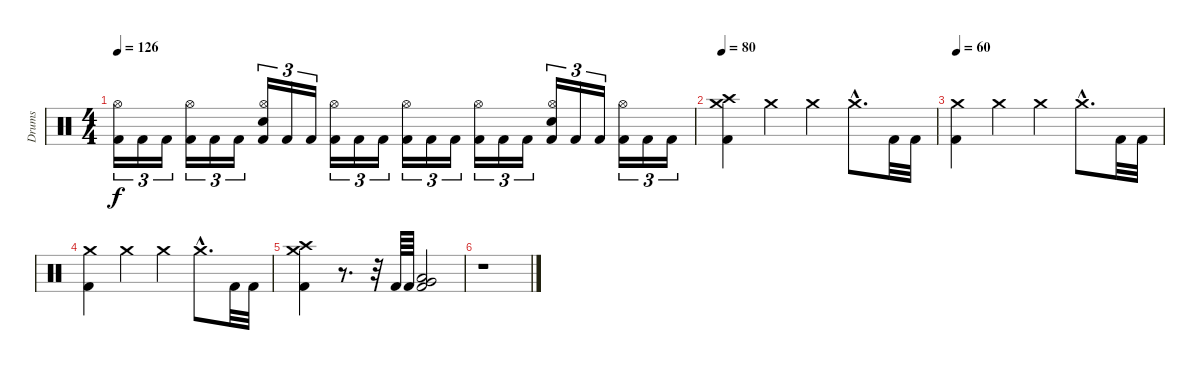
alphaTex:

\track ("Drums" "Drums") {instrument percussion}
\staff {score}
\articulation defaults
\ts (4 4)
\tempo 126
\clef neutral
\ks c
("Kick (hit) 2" "Hi-Hat (open)").16{tu (3 2) dy f} "Kick (hit) 2".16{tu (3 2)} "Kick (hit) 2".16{tu (3 2)} ("Kick (hit) 2" "Hi-Hat (open)").16{tu (3 2)} "Kick (hit) 2".16{tu (3 2)} "Kick (hit) 2".16{tu (3 2)} ("Kick (hit) 2" "Electric Snare (hit)" "Hi-Hat (open)").16{tu (3 2)} "Kick (hit) 2".16{tu (3 2)} "Kick (hit) 2".16{tu (3 2)} ("Kick (hit) 2" "Hi-Hat (open)").16{tu (3 2)} "Kick (hit) 2".16{tu (3 2)} "Kick (hit) 2".16{tu (3 2)} ("Kick (hit) 2" "Hi-Hat (open)").16{tu (3 2)} "Kick (hit) 2".16{tu (3 2)} "Kick (hit) 2".16{tu (3 2)} ("Kick (hit) 2" "Hi-Hat (open)").16{tu (3 2)} "Kick (hit) 2".16{tu (3 2)} "Kick (hit) 2".16{tu (3 2)} ("Kick (hit) 2" "Electric Snare (hit)" "Hi-Hat (open)").16{tu (3 2)} "Kick (hit) 2".16{tu (3 2)} "Kick (hit) 2".16{tu (3 2)} ("Kick (hit) 2" "Hi-Hat (open)").16{tu (3 2)} "Kick (hit) 2".16{tu (3 2)} "Kick (hit) 2".16{tu (3 2)} |
\tempo 80
("Kick (hit) 2" "Crash medium (hit)" "Crash high (hit)").4 "Crash medium (hit)".4 "Crash medium (hit)".4 "Crash medium (hit)"{hac}.8{d} "Kick (hit) 2".32 "Kick (hit) 2".32 |
\tempo 60
("Kick (hit) 2" "Crash medium (hit)").4 "Crash medium (hit)".4 "Crash medium (hit)".4 "Crash medium (hit)"{hac}.8{d} "Kick (hit) 2".32 "Kick (hit) 2".32 |
("Kick (hit) 2" "Crash medium (hit)").4 "Crash medium (hit)".4 "Crash medium (hit)".4 "Crash medium (hit)"{hac}.8{d} "Kick (hit) 2".32 "Kick (hit) 2".32 |
("Kick (hit) 2" "Crash medium (hit)" "Crash high (hit)").4 r.8{d} r.32 "Kick (hit) 2".64 "Kick (hit) 2".64 ("Kick (hit) 2" "Very Low Tom (hit)" "Low Tom (hit)").2 |
r.1
